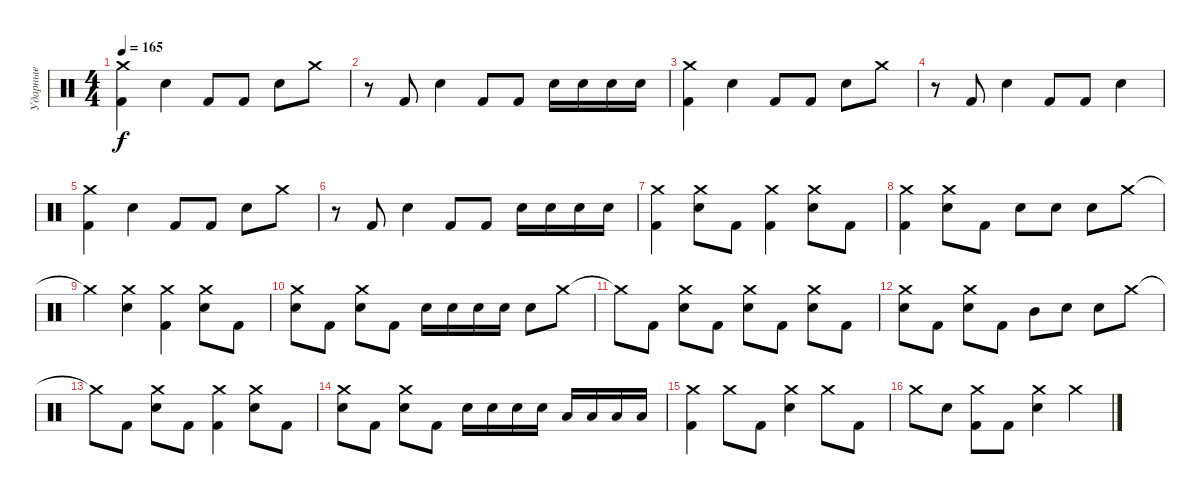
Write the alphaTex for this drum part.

\track ("Ударные" "Ударные") {instrument percussion}
\staff {score}
\articulation defaults
\ts (4 4)
\tempo 165
\clef neutral
\ks c
("Crash medium (hit)" "Kick (hit) 2").4{dy f} "Snare (hit) 2".4 "Kick (hit) 2".8 "Kick (hit) 2".8 "Snare (hit) 2".8 "Crash medium (hit)".8 |
r.8 "Kick (hit) 2".8 "Snare (hit) 2".4 "Kick (hit) 2".8 "Kick (hit) 2".8 "Snare (hit) 2".16 "Snare (hit) 2".16 "Snare (hit) 2".16 "Snare (hit) 2".16 |
("Crash medium (hit)" "Kick (hit) 2").4 "Snare (hit) 2".4 "Kick (hit) 2".8 "Kick (hit) 2".8 "Snare (hit) 2".8 "Crash medium (hit)".8 |
r.8 "Kick (hit) 2".8 "Snare (hit) 2".4 "Kick (hit) 2".8 "Kick (hit) 2".8 "Snare (hit) 2".4 |
("Crash medium (hit)" "Kick (hit) 2").4 "Snare (hit) 2".4 "Kick (hit) 2".8 "Kick (hit) 2".8 "Snare (hit) 2".8 "Crash medium (hit)".8 |
r.8 "Kick (hit) 2".8 "Snare (hit) 2".4 "Kick (hit) 2".8 "Kick (hit) 2".8 "Snare (hit) 2".16 "Snare (hit) 2".16 "Snare (hit) 2".16 "Snare (hit) 2".16 |
("Crash medium (hit)" "Kick (hit) 2").4 ("Crash medium (hit)" "Snare (hit) 2").8 "Kick (hit) 2".8 ("Crash medium (hit)" "Kick (hit) 2").4 ("Crash medium (hit)" "Snare (hit) 2").8 "Kick (hit) 2".8 |
("Crash medium (hit)" "Kick (hit) 2").4 ("Crash medium (hit)" "Snare (hit) 2").8 "Kick (hit) 2".8 "Snare (hit) 2".8 "Snare (hit) 2".8 "Snare (hit) 2".8 "Crash medium (hit)".8 |
"Crash medium (hit)"{t}.4 ("Crash medium (hit)" "Snare (hit) 2").4 ("Crash medium (hit)" "Kick (hit) 2").4 ("Crash medium (hit)" "Snare (hit) 2").8 "Kick (hit) 2".8 |
("Crash medium (hit)" "Snare (hit) 2").8 "Kick (hit) 2".8 ("Crash medium (hit)" "Snare (hit) 2").8 "Kick (hit) 2".8 "Snare (hit) 2".16 "Snare (hit) 2".16 "Snare (hit) 2".16 "Snare (hit) 2".16 "Snare (hit) 2".8 "Crash medium (hit)".8 |
"Crash medium (hit)"{t}.8 "Kick (hit) 2".8 ("Crash medium (hit)" "Snare (hit) 2").8 "Kick (hit) 2".8 ("Crash medium (hit)" "Snare (hit) 2").8 "Kick (hit) 2".8 ("Crash medium (hit)" "Snare (hit) 2").8 "Kick (hit) 2".8 |
("Crash medium (hit)" "Snare (hit) 2").8 "Kick (hit) 2".8 ("Crash medium (hit)" "Snare (hit) 2").8 "Kick (hit) 2".8 "Mid Tom (hit)".8 "Snare (hit) 2".8 "Snare (hit) 2".8 "Crash medium (hit)".8 |
"Crash medium (hit)"{t}.8 "Kick (hit) 2".8 ("Crash medium (hit)" "Snare (hit) 2").8 "Kick (hit) 2".8 ("Crash medium (hit)" "Kick (hit) 2").4 ("Crash medium (hit)" "Snare (hit) 2").8 "Kick (hit) 2".8 |
("Crash medium (hit)" "Snare (hit) 2").8 "Kick (hit) 2".8 ("Crash medium (hit)" "Snare (hit) 2").8 "Kick (hit) 2".8 "Snare (hit) 2".16 "Snare (hit) 2".16 "Snare (hit) 2".16 "Snare (hit) 2".16 "Low Tom (hit)".16 "Low Tom (hit)".16 "Low Tom (hit)".16 "Low Tom (hit)".16 |
("Crash medium (hit)" "Kick (hit) 2").4 "Crash medium (hit)".8 "Kick (hit) 2".8 ("Crash medium (hit)" "Snare (hit) 2").4 "Crash medium (hit)".8 "Kick (hit) 2".8 |
"Crash medium (hit)".8 "Snare (hit) 2".8 ("Crash medium (hit)" "Kick (hit) 2").8 "Kick (hit) 2".8 ("Crash medium (hit)" "Snare (hit) 2").4 "Crash medium (hit)".4
